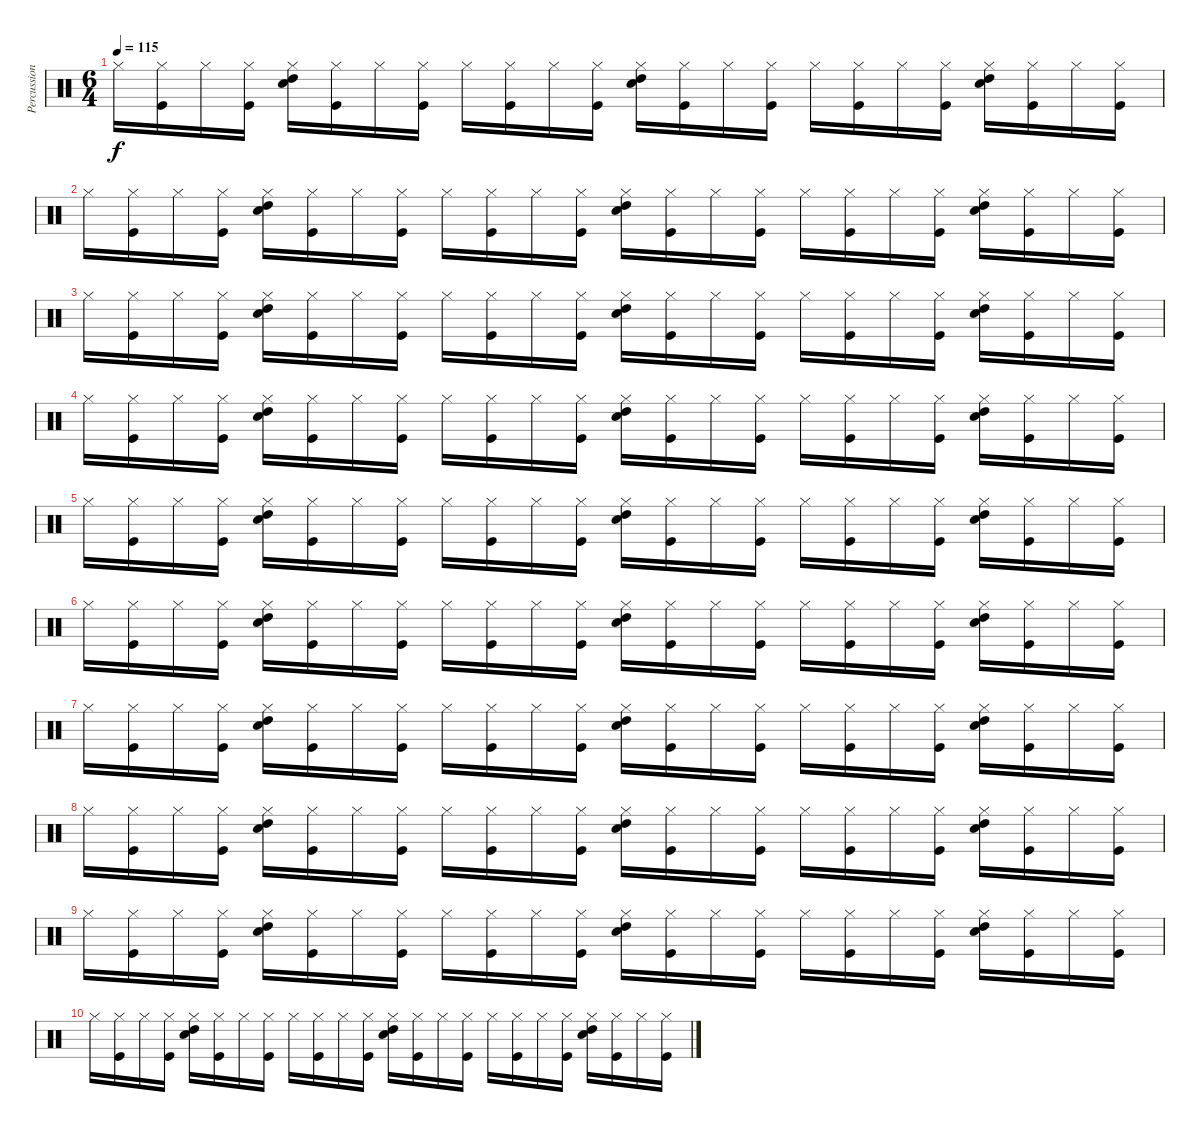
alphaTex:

\track ("Percussion" "Percussion") {instrument percussion}
\staff {score}
\articulation defaults
\ts (6 4)
\tempo 115
\clef neutral
\ks c "Hi-Hat (closed)".16{dy f volume 16}
("Hi-Hat (closed)" "Kick (hit)").16 "Hi-Hat (closed)".16 ("Hi-Hat (closed)" "Kick (hit)").16 ("Hi-Hat (closed)" "Electric Snare (hit)" "High Tom (hit)").16 ("Hi-Hat (closed)" "Kick (hit)").16 "Hi-Hat (closed)".16 ("Hi-Hat (closed)" "Kick (hit)").16 "Hi-Hat (closed)".16 ("Hi-Hat (closed)" "Kick (hit)").16 "Hi-Hat (closed)".16 ("Hi-Hat (closed)" "Kick (hit)").16 ("Hi-Hat (closed)" "Electric Snare (hit)" "High Tom (hit)").16 ("Hi-Hat (closed)" "Kick (hit)").16 "Hi-Hat (closed)".16 ("Hi-Hat (closed)" "Kick (hit)").16 "Hi-Hat (closed)".16 ("Hi-Hat (closed)" "Kick (hit)").16 "Hi-Hat (closed)".16 ("Hi-Hat (closed)" "Kick (hit)").16 ("Hi-Hat (closed)" "Electric Snare (hit)" "High Tom (hit)").16 ("Hi-Hat (closed)" "Kick (hit)").16 "Hi-Hat (closed)".16 ("Hi-Hat (closed)" "Kick (hit)").16 |
"Hi-Hat (closed)".16{volume 16} ("Hi-Hat (closed)" "Kick (hit)").16 "Hi-Hat (closed)".16 ("Hi-Hat (closed)" "Kick (hit)").16 ("Hi-Hat (closed)" "Electric Snare (hit)" "High Tom (hit)").16 ("Hi-Hat (closed)" "Kick (hit)").16 "Hi-Hat (closed)".16 ("Hi-Hat (closed)" "Kick (hit)").16 "Hi-Hat (closed)".16 ("Hi-Hat (closed)" "Kick (hit)").16 "Hi-Hat (closed)".16 ("Hi-Hat (closed)" "Kick (hit)").16 ("Hi-Hat (closed)" "Electric Snare (hit)" "High Tom (hit)").16 ("Hi-Hat (closed)" "Kick (hit)").16 "Hi-Hat (closed)".16 ("Hi-Hat (closed)" "Kick (hit)").16 "Hi-Hat (closed)".16 ("Hi-Hat (closed)" "Kick (hit)").16 "Hi-Hat (closed)".16 ("Hi-Hat (closed)" "Kick (hit)").16 ("Hi-Hat (closed)" "Electric Snare (hit)" "High Tom (hit)").16 ("Hi-Hat (closed)" "Kick (hit)").16 "Hi-Hat (closed)".16 ("Hi-Hat (closed)" "Kick (hit)").16 |
"Hi-Hat (closed)".16{volume 16} ("Hi-Hat (closed)" "Kick (hit)").16 "Hi-Hat (closed)".16 ("Hi-Hat (closed)" "Kick (hit)").16 ("Hi-Hat (closed)" "Electric Snare (hit)" "High Tom (hit)").16 ("Hi-Hat (closed)" "Kick (hit)").16 "Hi-Hat (closed)".16 ("Hi-Hat (closed)" "Kick (hit)").16 "Hi-Hat (closed)".16 ("Hi-Hat (closed)" "Kick (hit)").16 "Hi-Hat (closed)".16 ("Hi-Hat (closed)" "Kick (hit)").16 ("Hi-Hat (closed)" "Electric Snare (hit)" "High Tom (hit)").16 ("Hi-Hat (closed)" "Kick (hit)").16 "Hi-Hat (closed)".16 ("Hi-Hat (closed)" "Kick (hit)").16 "Hi-Hat (closed)".16 ("Hi-Hat (closed)" "Kick (hit)").16 "Hi-Hat (closed)".16 ("Hi-Hat (closed)" "Kick (hit)").16 ("Hi-Hat (closed)" "Electric Snare (hit)" "High Tom (hit)").16 ("Hi-Hat (closed)" "Kick (hit)").16 "Hi-Hat (closed)".16 ("Hi-Hat (closed)" "Kick (hit)").16 |
"Hi-Hat (closed)".16{volume 16} ("Hi-Hat (closed)" "Kick (hit)").16 "Hi-Hat (closed)".16 ("Hi-Hat (closed)" "Kick (hit)").16 ("Hi-Hat (closed)" "Electric Snare (hit)" "High Tom (hit)").16 ("Hi-Hat (closed)" "Kick (hit)").16 "Hi-Hat (closed)".16 ("Hi-Hat (closed)" "Kick (hit)").16 "Hi-Hat (closed)".16 ("Hi-Hat (closed)" "Kick (hit)").16 "Hi-Hat (closed)".16 ("Hi-Hat (closed)" "Kick (hit)").16 ("Hi-Hat (closed)" "Electric Snare (hit)" "High Tom (hit)").16 ("Hi-Hat (closed)" "Kick (hit)").16 "Hi-Hat (closed)".16 ("Hi-Hat (closed)" "Kick (hit)").16 "Hi-Hat (closed)".16 ("Hi-Hat (closed)" "Kick (hit)").16 "Hi-Hat (closed)".16 ("Hi-Hat (closed)" "Kick (hit)").16 ("Hi-Hat (closed)" "Electric Snare (hit)" "High Tom (hit)").16 ("Hi-Hat (closed)" "Kick (hit)").16 "Hi-Hat (closed)".16 ("Hi-Hat (closed)" "Kick (hit)").16 |
"Hi-Hat (closed)".16{volume 16} ("Hi-Hat (closed)" "Kick (hit)").16 "Hi-Hat (closed)".16 ("Hi-Hat (closed)" "Kick (hit)").16 ("Hi-Hat (closed)" "Electric Snare (hit)" "High Tom (hit)").16 ("Hi-Hat (closed)" "Kick (hit)").16 "Hi-Hat (closed)".16 ("Hi-Hat (closed)" "Kick (hit)").16 "Hi-Hat (closed)".16 ("Hi-Hat (closed)" "Kick (hit)").16 "Hi-Hat (closed)".16 ("Hi-Hat (closed)" "Kick (hit)").16 ("Hi-Hat (closed)" "Electric Snare (hit)" "High Tom (hit)").16 ("Hi-Hat (closed)" "Kick (hit)").16 "Hi-Hat (closed)".16 ("Hi-Hat (closed)" "Kick (hit)").16 "Hi-Hat (closed)".16 ("Hi-Hat (closed)" "Kick (hit)").16 "Hi-Hat (closed)".16 ("Hi-Hat (closed)" "Kick (hit)").16 ("Hi-Hat (closed)" "Electric Snare (hit)" "High Tom (hit)").16 ("Hi-Hat (closed)" "Kick (hit)").16 "Hi-Hat (closed)".16 ("Hi-Hat (closed)" "Kick (hit)").16 |
"Hi-Hat (closed)".16{volume 16} ("Hi-Hat (closed)" "Kick (hit)").16 "Hi-Hat (closed)".16 ("Hi-Hat (closed)" "Kick (hit)").16 ("Hi-Hat (closed)" "Electric Snare (hit)" "High Tom (hit)").16 ("Hi-Hat (closed)" "Kick (hit)").16 "Hi-Hat (closed)".16 ("Hi-Hat (closed)" "Kick (hit)").16 "Hi-Hat (closed)".16 ("Hi-Hat (closed)" "Kick (hit)").16 "Hi-Hat (closed)".16 ("Hi-Hat (closed)" "Kick (hit)").16 ("Hi-Hat (closed)" "Electric Snare (hit)" "High Tom (hit)").16 ("Hi-Hat (closed)" "Kick (hit)").16 "Hi-Hat (closed)".16 ("Hi-Hat (closed)" "Kick (hit)").16 "Hi-Hat (closed)".16 ("Hi-Hat (closed)" "Kick (hit)").16 "Hi-Hat (closed)".16 ("Hi-Hat (closed)" "Kick (hit)").16 ("Hi-Hat (closed)" "Electric Snare (hit)" "High Tom (hit)").16 ("Hi-Hat (closed)" "Kick (hit)").16 "Hi-Hat (closed)".16 ("Hi-Hat (closed)" "Kick (hit)").16 |
"Hi-Hat (closed)".16{volume 16} ("Hi-Hat (closed)" "Kick (hit)").16 "Hi-Hat (closed)".16 ("Hi-Hat (closed)" "Kick (hit)").16 ("Hi-Hat (closed)" "Electric Snare (hit)" "High Tom (hit)").16 ("Hi-Hat (closed)" "Kick (hit)").16 "Hi-Hat (closed)".16 ("Hi-Hat (closed)" "Kick (hit)").16 "Hi-Hat (closed)".16 ("Hi-Hat (closed)" "Kick (hit)").16 "Hi-Hat (closed)".16 ("Hi-Hat (closed)" "Kick (hit)").16 ("Hi-Hat (closed)" "Electric Snare (hit)" "High Tom (hit)").16 ("Hi-Hat (closed)" "Kick (hit)").16 "Hi-Hat (closed)".16 ("Hi-Hat (closed)" "Kick (hit)").16 "Hi-Hat (closed)".16 ("Hi-Hat (closed)" "Kick (hit)").16 "Hi-Hat (closed)".16 ("Hi-Hat (closed)" "Kick (hit)").16 ("Hi-Hat (closed)" "Electric Snare (hit)" "High Tom (hit)").16 ("Hi-Hat (closed)" "Kick (hit)").16 "Hi-Hat (closed)".16 ("Hi-Hat (closed)" "Kick (hit)").16 |
"Hi-Hat (closed)".16{volume 16} ("Hi-Hat (closed)" "Kick (hit)").16 "Hi-Hat (closed)".16 ("Hi-Hat (closed)" "Kick (hit)").16 ("Hi-Hat (closed)" "Electric Snare (hit)" "High Tom (hit)").16 ("Hi-Hat (closed)" "Kick (hit)").16 "Hi-Hat (closed)".16 ("Hi-Hat (closed)" "Kick (hit)").16 "Hi-Hat (closed)".16 ("Hi-Hat (closed)" "Kick (hit)").16 "Hi-Hat (closed)".16 ("Hi-Hat (closed)" "Kick (hit)").16 ("Hi-Hat (closed)" "Electric Snare (hit)" "High Tom (hit)").16 ("Hi-Hat (closed)" "Kick (hit)").16 "Hi-Hat (closed)".16 ("Hi-Hat (closed)" "Kick (hit)").16 "Hi-Hat (closed)".16 ("Hi-Hat (closed)" "Kick (hit)").16 "Hi-Hat (closed)".16 ("Hi-Hat (closed)" "Kick (hit)").16 ("Hi-Hat (closed)" "Electric Snare (hit)" "High Tom (hit)").16 ("Hi-Hat (closed)" "Kick (hit)").16 "Hi-Hat (closed)".16 ("Hi-Hat (closed)" "Kick (hit)").16 |
"Hi-Hat (closed)".16{volume 16} ("Hi-Hat (closed)" "Kick (hit)").16 "Hi-Hat (closed)".16 ("Hi-Hat (closed)" "Kick (hit)").16 ("Hi-Hat (closed)" "Electric Snare (hit)" "High Tom (hit)").16 ("Hi-Hat (closed)" "Kick (hit)").16 "Hi-Hat (closed)".16 ("Hi-Hat (closed)" "Kick (hit)").16 "Hi-Hat (closed)".16 ("Hi-Hat (closed)" "Kick (hit)").16 "Hi-Hat (closed)".16 ("Hi-Hat (closed)" "Kick (hit)").16 ("Hi-Hat (closed)" "Electric Snare (hit)" "High Tom (hit)").16 ("Hi-Hat (closed)" "Kick (hit)").16 "Hi-Hat (closed)".16 ("Hi-Hat (closed)" "Kick (hit)").16 "Hi-Hat (closed)".16 ("Hi-Hat (closed)" "Kick (hit)").16 "Hi-Hat (closed)".16 ("Hi-Hat (closed)" "Kick (hit)").16 ("Hi-Hat (closed)" "Electric Snare (hit)" "High Tom (hit)").16 ("Hi-Hat (closed)" "Kick (hit)").16 "Hi-Hat (closed)".16 ("Hi-Hat (closed)" "Kick (hit)").16 |
"Hi-Hat (closed)".16{volume 16} ("Hi-Hat (closed)" "Kick (hit)").16 "Hi-Hat (closed)".16 ("Hi-Hat (closed)" "Kick (hit)").16 ("Hi-Hat (closed)" "Electric Snare (hit)" "High Tom (hit)").16 ("Hi-Hat (closed)" "Kick (hit)").16 "Hi-Hat (closed)".16 ("Hi-Hat (closed)" "Kick (hit)").16 "Hi-Hat (closed)".16 ("Hi-Hat (closed)" "Kick (hit)").16 "Hi-Hat (closed)".16 ("Hi-Hat (closed)" "Kick (hit)").16 ("Hi-Hat (closed)" "Electric Snare (hit)" "High Tom (hit)").16 ("Hi-Hat (closed)" "Kick (hit)").16 "Hi-Hat (closed)".16 ("Hi-Hat (closed)" "Kick (hit)").16 "Hi-Hat (closed)".16 ("Hi-Hat (closed)" "Kick (hit)").16 "Hi-Hat (closed)".16 ("Hi-Hat (closed)" "Kick (hit)").16 ("Hi-Hat (closed)" "Electric Snare (hit)" "High Tom (hit)").16 ("Hi-Hat (closed)" "Kick (hit)").16 "Hi-Hat (closed)".16 ("Hi-Hat (closed)" "Kick (hit)").16
